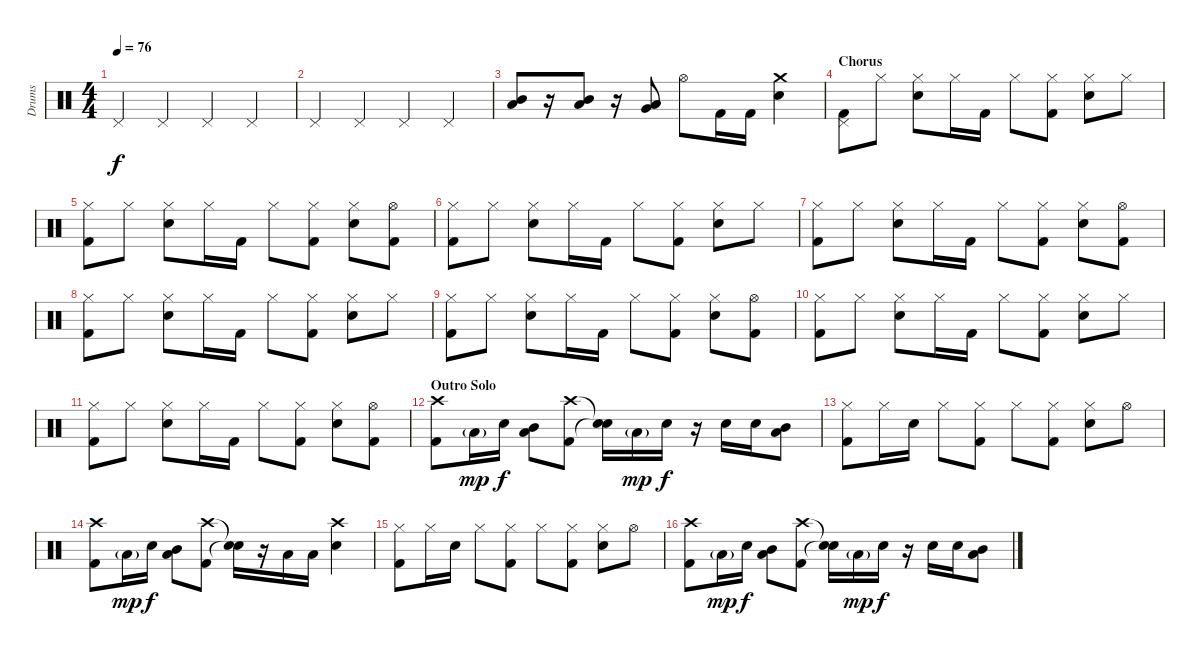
\track ("Drums" "Drums") {instrument percussion}
\staff {score}
\articulation defaults
\ts (4 4)
\tempo 76
\clef neutral
\ks c "Pedal Hi-Hat (hit)".4{dy f} "Pedal Hi-Hat (hit)".4 "Pedal Hi-Hat (hit)".4 "Pedal Hi-Hat (hit)".4
|
"Pedal Hi-Hat (hit)".4 "Pedal Hi-Hat (hit)".4 "Pedal Hi-Hat (hit)".4 "Pedal Hi-Hat (hit)".4 |
("Low Tom (hit)" "Mid Tom (hit)").8 r.16 ("Low Tom (hit)" "Mid Tom (hit)").8 r.16 ("Very Low Tom (hit)" "Low Tom (hit)").8 "Hi-Hat (open)".8 "Kick (hit) 2".16 "Kick (hit) 2".16 ("Crash medium (hit)" "Electric Snare (hit)").4 |
\section ("" "Chorus")
("Pedal Hi-Hat (hit)" "Kick (hit) 2").8 "Hi-Hat (closed)".8 ("Hi-Hat (closed)" "Electric Snare (hit)").8 "Hi-Hat (closed)".16 "Kick (hit) 2".16 "Hi-Hat (closed)".8 ("Hi-Hat (closed)" "Kick (hit) 2").8 ("Hi-Hat (closed)" "Electric Snare (hit)").8 "Hi-Hat (closed)".8 |
("Hi-Hat (closed)" "Kick (hit) 2").8 "Hi-Hat (closed)".8 ("Hi-Hat (closed)" "Electric Snare (hit)").8 "Hi-Hat (closed)".16 "Kick (hit) 2".16 "Hi-Hat (closed)".8 ("Hi-Hat (closed)" "Kick (hit) 2").8 ("Hi-Hat (closed)" "Electric Snare (hit)").8 ("Hi-Hat (open)" "Kick (hit) 2").8 |
("Hi-Hat (closed)" "Kick (hit) 2").8 "Hi-Hat (closed)".8 ("Hi-Hat (closed)" "Electric Snare (hit)").8 "Hi-Hat (closed)".16 "Kick (hit) 2".16 "Hi-Hat (closed)".8 ("Hi-Hat (closed)" "Kick (hit) 2").8 ("Hi-Hat (closed)" "Electric Snare (hit)").8 "Hi-Hat (closed)".8 |
("Hi-Hat (closed)" "Kick (hit) 2").8 "Hi-Hat (closed)".8 ("Hi-Hat (closed)" "Electric Snare (hit)").8 "Hi-Hat (closed)".16 "Kick (hit) 2".16 "Hi-Hat (closed)".8 ("Hi-Hat (closed)" "Kick (hit) 2").8 ("Hi-Hat (closed)" "Electric Snare (hit)").8 ("Hi-Hat (open)" "Kick (hit) 2").8 |
("Hi-Hat (closed)" "Kick (hit) 2").8 "Hi-Hat (closed)".8 ("Hi-Hat (closed)" "Electric Snare (hit)").8 "Hi-Hat (closed)".16 "Kick (hit) 2".16 "Hi-Hat (closed)".8 ("Hi-Hat (closed)" "Kick (hit) 2").8 ("Hi-Hat (closed)" "Electric Snare (hit)").8 "Hi-Hat (closed)".8 |
("Hi-Hat (closed)" "Kick (hit) 2").8 "Hi-Hat (closed)".8 ("Hi-Hat (closed)" "Electric Snare (hit)").8 "Hi-Hat (closed)".16 "Kick (hit) 2".16 "Hi-Hat (closed)".8 ("Hi-Hat (closed)" "Kick (hit) 2").8 ("Hi-Hat (closed)" "Electric Snare (hit)").8 ("Hi-Hat (open)" "Kick (hit) 2").8 |
("Hi-Hat (closed)" "Kick (hit) 2").8 "Hi-Hat (closed)".8 ("Hi-Hat (closed)" "Electric Snare (hit)").8 "Hi-Hat (closed)".16 "Kick (hit) 2".16 "Hi-Hat (closed)".8 ("Hi-Hat (closed)" "Kick (hit) 2").8 ("Hi-Hat (closed)" "Electric Snare (hit)").8 "Hi-Hat (closed)".8 |
("Hi-Hat (closed)" "Kick (hit) 2").8 "Hi-Hat (closed)".8 ("Hi-Hat (closed)" "Electric Snare (hit)").8 "Hi-Hat (closed)".16 "Kick (hit) 2".16 "Hi-Hat (closed)".8 ("Hi-Hat (closed)" "Kick (hit) 2").8 ("Hi-Hat (closed)" "Electric Snare (hit)").8 ("Hi-Hat (open)" "Kick (hit) 2").8 |
\section ("" "Outro Solo")
("Crash high (hit)" "Kick (hit) 2").8 "Low Tom (hit)"{g}.16{dy mp} "Electric Snare (hit)".16{dy f} ("Low Tom (hit)" "Mid Tom (hit)").8 ("Crash high (hit)" "Kick (hit) 2").8 ("Snare (hit)"{t} "Snare (hit)"{t}).16 "Low Tom (hit)"{g}.16{dy mp} "Electric Snare (hit)".16{dy f} r.16 "Electric Snare (hit)".16 "Electric Snare (hit)".16 ("Low Tom (hit)" "Mid Tom (hit)").8 |
("Hi-Hat (closed)" "Kick (hit) 2").8 "Hi-Hat (closed)".16 "Electric Snare (hit)".16 "Hi-Hat (closed)".8 ("Hi-Hat (closed)" "Kick (hit) 2").8 "Hi-Hat (closed)".8 ("Hi-Hat (closed)" "Kick (hit) 2").8 ("Hi-Hat (closed)" "Electric Snare (hit)").8 "Hi-Hat (open)".8 |
("Crash high (hit)" "Kick (hit) 2").8 "Low Tom (hit)"{g}.16{dy mp} "Electric Snare (hit)".16{dy f} ("Low Tom (hit)" "Mid Tom (hit)").8 ("Crash high (hit)" "Kick (hit) 2").8 ("Snare (hit)"{t} "Snare (hit)"{t}).16 r.16 "Low Tom (hit)".16 "Low Tom (hit)".16 ("Crash high (hit)" "Electric Snare (hit)").4 |
("Hi-Hat (closed)" "Kick (hit) 2").8 "Hi-Hat (closed)".16 "Electric Snare (hit)".16 "Hi-Hat (closed)".8 ("Hi-Hat (closed)" "Kick (hit) 2").8 "Hi-Hat (closed)".8 ("Hi-Hat (closed)" "Kick (hit) 2").8 ("Hi-Hat (closed)" "Electric Snare (hit)").8 "Hi-Hat (open)".8 |
\section ("" "")
("Crash high (hit)" "Kick (hit) 2").8 "Low Tom (hit)"{g}.16{dy mp} "Electric Snare (hit)".16{dy f} ("Low Tom (hit)" "Mid Tom (hit)").8 ("Crash high (hit)" "Kick (hit) 2").8 ("Snare (hit)"{t} "Snare (hit)"{t}).16 "Low Tom (hit)"{g}.16{dy mp} "Electric Snare (hit)".16{dy f} r.16 "Electric Snare (hit)".16 "Electric Snare (hit)".16 ("Low Tom (hit)" "Mid Tom (hit)").8
